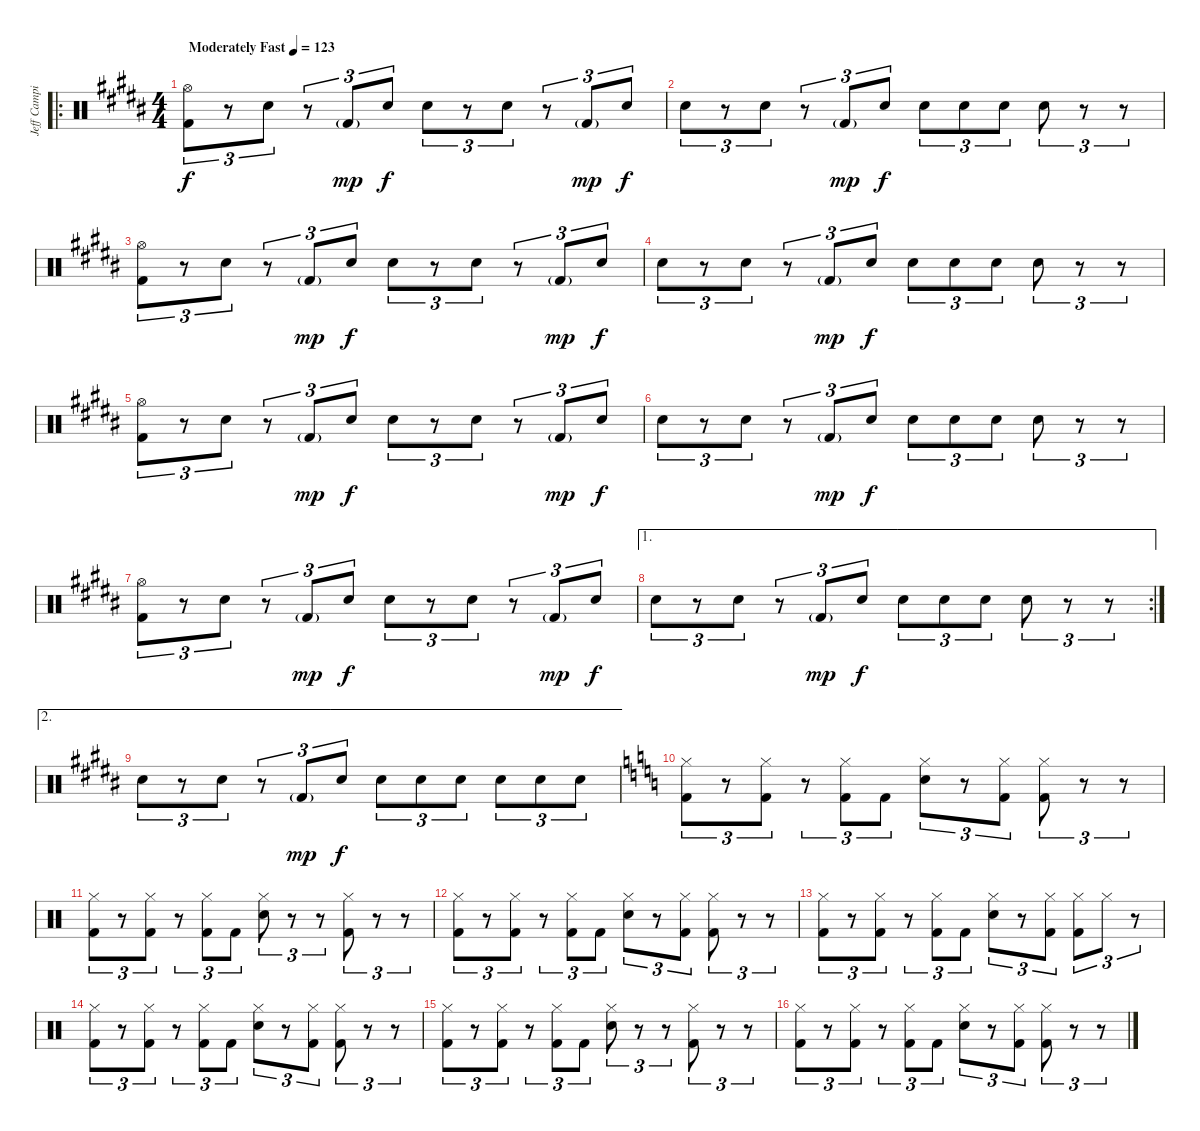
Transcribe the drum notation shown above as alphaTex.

\track ("Jeff Campitelli (Drums)" "Jeff Campi") {instrument percussion}
\staff {score}
\articulation defaults
\ro
\ts (4 4)
\tempo (123 "Moderately Fast")
\clef neutral
\ks b
("Hi-Hat (open)" "Kick (hit) 2").8{tu (3 2) dy f} r.8{tu (3 2)} "Electric Snare (hit)".8{tu (3 2)} r.8{tu (3 2)} "Kick (hit) 2"{g}.8{tu (3 2) dy mp} "Electric Snare (hit)".8{tu (3 2) dy f} "Electric Snare (hit)".8{tu (3 2)} r.8{tu (3 2)} "Electric Snare (hit)".8{tu (3 2)} r.8{tu (3 2)} "Kick (hit) 2"{g}.8{tu (3 2) dy mp} "Electric Snare (hit)".8{tu (3 2) dy f} |
"Electric Snare (hit)".8{tu (3 2)} r.8{tu (3 2)} "Electric Snare (hit)".8{tu (3 2)} r.8{tu (3 2)} "Kick (hit) 2"{g}.8{tu (3 2) dy mp} "Electric Snare (hit)".8{tu (3 2) dy f} "Electric Snare (hit)".8{tu (3 2)} "Electric Snare (hit)".8{tu (3 2)} "Electric Snare (hit)".8{tu (3 2)} "Electric Snare (hit)".8{tu (3 2)} r.8{tu (3 2)} r.8{tu (3 2)} |
("Hi-Hat (open)" "Kick (hit) 2").8{tu (3 2)} r.8{tu (3 2)} "Electric Snare (hit)".8{tu (3 2)} r.8{tu (3 2)} "Kick (hit) 2"{g}.8{tu (3 2) dy mp} "Electric Snare (hit)".8{tu (3 2) dy f} "Electric Snare (hit)".8{tu (3 2)} r.8{tu (3 2)} "Electric Snare (hit)".8{tu (3 2)} r.8{tu (3 2)} "Kick (hit) 2"{g}.8{tu (3 2) dy mp} "Electric Snare (hit)".8{tu (3 2) dy f} |
"Electric Snare (hit)".8{tu (3 2)} r.8{tu (3 2)} "Electric Snare (hit)".8{tu (3 2)} r.8{tu (3 2)} "Kick (hit) 2"{g}.8{tu (3 2) dy mp} "Electric Snare (hit)".8{tu (3 2) dy f} "Electric Snare (hit)".8{tu (3 2)} "Electric Snare (hit)".8{tu (3 2)} "Electric Snare (hit)".8{tu (3 2)} "Electric Snare (hit)".8{tu (3 2)} r.8{tu (3 2)} r.8{tu (3 2)} |
("Hi-Hat (open)" "Kick (hit) 2").8{tu (3 2)} r.8{tu (3 2)} "Electric Snare (hit)".8{tu (3 2)} r.8{tu (3 2)} "Kick (hit) 2"{g}.8{tu (3 2) dy mp} "Electric Snare (hit)".8{tu (3 2) dy f} "Electric Snare (hit)".8{tu (3 2)} r.8{tu (3 2)} "Electric Snare (hit)".8{tu (3 2)} r.8{tu (3 2)} "Kick (hit) 2"{g}.8{tu (3 2) dy mp} "Electric Snare (hit)".8{tu (3 2) dy f} |
"Electric Snare (hit)".8{tu (3 2)} r.8{tu (3 2)} "Electric Snare (hit)".8{tu (3 2)} r.8{tu (3 2)} "Kick (hit) 2"{g}.8{tu (3 2) dy mp} "Electric Snare (hit)".8{tu (3 2) dy f} "Electric Snare (hit)".8{tu (3 2)} "Electric Snare (hit)".8{tu (3 2)} "Electric Snare (hit)".8{tu (3 2)} "Electric Snare (hit)".8{tu (3 2)} r.8{tu (3 2)} r.8{tu (3 2)} |
("Hi-Hat (open)" "Kick (hit) 2").8{tu (3 2)} r.8{tu (3 2)} "Electric Snare (hit)".8{tu (3 2)} r.8{tu (3 2)} "Kick (hit) 2"{g}.8{tu (3 2) dy mp} "Electric Snare (hit)".8{tu (3 2) dy f} "Electric Snare (hit)".8{tu (3 2)} r.8{tu (3 2)} "Electric Snare (hit)".8{tu (3 2)} r.8{tu (3 2)} "Kick (hit) 2"{g}.8{tu (3 2) dy mp} "Electric Snare (hit)".8{tu (3 2) dy f} |
\ae 1
\rc 2 "Electric Snare (hit)".8{tu (3 2)}
r.8{tu (3 2)} "Electric Snare (hit)".8{tu (3 2)} r.8{tu (3 2)} "Kick (hit) 2"{g}.8{tu (3 2) dy mp} "Electric Snare (hit)".8{tu (3 2) dy f} "Electric Snare (hit)".8{tu (3 2)} "Electric Snare (hit)".8{tu (3 2)} "Electric Snare (hit)".8{tu (3 2)} "Electric Snare (hit)".8{tu (3 2)} r.8{tu (3 2)} r.8{tu (3 2)} |
\ae 2 "Electric Snare (hit)".8{tu (3 2)}
r.8{tu (3 2)} "Electric Snare (hit)".8{tu (3 2)} r.8{tu (3 2)} "Kick (hit) 2"{g}.8{tu (3 2) dy mp} "Electric Snare (hit)".8{tu (3 2) dy f} "Electric Snare (hit)".8{tu (3 2)} "Electric Snare (hit)".8{tu (3 2)} "Electric Snare (hit)".8{tu (3 2)} "Electric Snare (hit)".8{tu (3 2)} "Electric Snare (hit)".8{tu (3 2)} "Electric Snare (hit)".8{tu (3 2)} |
\ks c
("Hi-Hat (closed)" "Kick (hit) 2").8{tu (3 2)} r.8{tu (3 2)} ("Hi-Hat (closed)" "Kick (hit) 2").8{tu (3 2)} r.8{tu (3 2)} ("Hi-Hat (closed)" "Kick (hit) 2").8{tu (3 2)} "Kick (hit) 2".8{tu (3 2)} ("Hi-Hat (closed)" "Electric Snare (hit)").8{tu (3 2)} r.8{tu (3 2)} ("Hi-Hat (closed)" "Kick (hit) 2").8{tu (3 2)} ("Hi-Hat (closed)" "Kick (hit) 2").8{tu (3 2)} r.8{tu (3 2)} r.8{tu (3 2)} |
("Hi-Hat (closed)" "Kick (hit) 2").8{tu (3 2)} r.8{tu (3 2)} ("Hi-Hat (closed)" "Kick (hit) 2").8{tu (3 2)} r.8{tu (3 2)} ("Hi-Hat (closed)" "Kick (hit) 2").8{tu (3 2)} "Kick (hit) 2".8{tu (3 2)} ("Hi-Hat (closed)" "Electric Snare (hit)").8{tu (3 2)} r.8{tu (3 2)} r.8{tu (3 2)} ("Hi-Hat (closed)" "Kick (hit) 2").8{tu (3 2)} r.8{tu (3 2)} r.8{tu (3 2)} |
("Hi-Hat (closed)" "Kick (hit) 2").8{tu (3 2)} r.8{tu (3 2)} ("Hi-Hat (closed)" "Kick (hit) 2").8{tu (3 2)} r.8{tu (3 2)} ("Hi-Hat (closed)" "Kick (hit) 2").8{tu (3 2)} "Kick (hit) 2".8{tu (3 2)} ("Hi-Hat (closed)" "Electric Snare (hit)").8{tu (3 2)} r.8{tu (3 2)} ("Hi-Hat (closed)" "Kick (hit) 2").8{tu (3 2)} ("Hi-Hat (closed)" "Kick (hit) 2").8{tu (3 2)} r.8{tu (3 2)} r.8{tu (3 2)} |
("Hi-Hat (closed)" "Kick (hit) 2").8{tu (3 2)} r.8{tu (3 2)} ("Hi-Hat (closed)" "Kick (hit) 2").8{tu (3 2)} r.8{tu (3 2)} ("Hi-Hat (closed)" "Kick (hit) 2").8{tu (3 2)} "Kick (hit) 2".8{tu (3 2)} ("Hi-Hat (closed)" "Electric Snare (hit)").8{tu (3 2)} r.8{tu (3 2)} ("Hi-Hat (closed)" "Kick (hit) 2").8{tu (3 2)} ("Hi-Hat (closed)" "Kick (hit) 2").8{tu (3 2)} "Hi-Hat (closed)".8{tu (3 2)} r.8{tu (3 2)} |
("Hi-Hat (closed)" "Kick (hit) 2").8{tu (3 2)} r.8{tu (3 2)} ("Hi-Hat (closed)" "Kick (hit) 2").8{tu (3 2)} r.8{tu (3 2)} ("Hi-Hat (closed)" "Kick (hit) 2").8{tu (3 2)} "Kick (hit) 2".8{tu (3 2)} ("Hi-Hat (closed)" "Electric Snare (hit)").8{tu (3 2)} r.8{tu (3 2)} ("Hi-Hat (closed)" "Kick (hit) 2").8{tu (3 2)} ("Hi-Hat (closed)" "Kick (hit) 2").8{tu (3 2)} r.8{tu (3 2)} r.8{tu (3 2)} |
("Hi-Hat (closed)" "Kick (hit) 2").8{tu (3 2)} r.8{tu (3 2)} ("Hi-Hat (closed)" "Kick (hit) 2").8{tu (3 2)} r.8{tu (3 2)} ("Hi-Hat (closed)" "Kick (hit) 2").8{tu (3 2)} "Kick (hit) 2".8{tu (3 2)} ("Hi-Hat (closed)" "Electric Snare (hit)").8{tu (3 2)} r.8{tu (3 2)} r.8{tu (3 2)} ("Hi-Hat (closed)" "Kick (hit) 2").8{tu (3 2)} r.8{tu (3 2)} r.8{tu (3 2)} |
("Hi-Hat (closed)" "Kick (hit) 2").8{tu (3 2)} r.8{tu (3 2)} ("Hi-Hat (closed)" "Kick (hit) 2").8{tu (3 2)} r.8{tu (3 2)} ("Hi-Hat (closed)" "Kick (hit) 2").8{tu (3 2)} "Kick (hit) 2".8{tu (3 2)} ("Hi-Hat (closed)" "Electric Snare (hit)").8{tu (3 2)} r.8{tu (3 2)} ("Hi-Hat (closed)" "Kick (hit) 2").8{tu (3 2)} ("Hi-Hat (closed)" "Kick (hit) 2").8{tu (3 2)} r.8{tu (3 2)} r.8{tu (3 2)}
